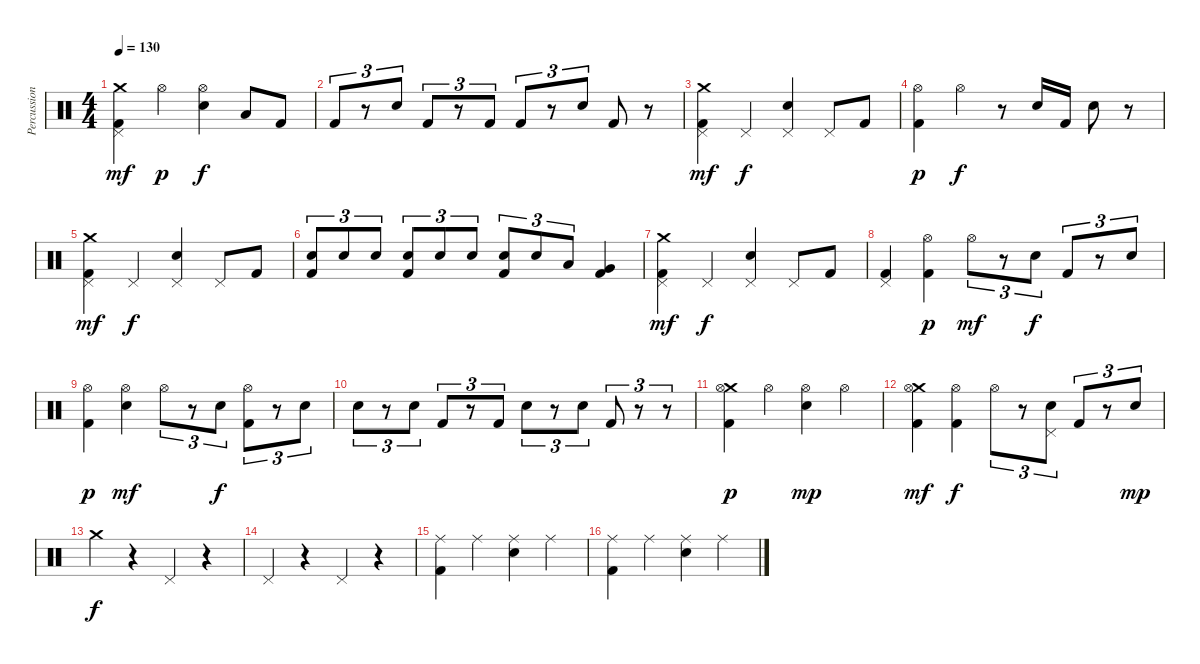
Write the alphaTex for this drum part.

\track ("Percussion" "Percussion") {instrument percussion}
\staff {score}
\articulation defaults
\ts (4 4)
\tempo 130
\clef neutral
\ks c
("Crash medium (hit)" "Pedal Hi-Hat (hit)" "Kick (hit) 2").4{dy mf} "Hi-Hat (open)".4{dy p} ("Hi-Hat (open)" "Snare (hit) 2").4{dy f} "Low Tom (hit)".8 "Kick (hit) 2".8 |
"Kick (hit) 2".8{tu (3 2)} r.8{tu (3 2)} "Snare (hit) 2".8{tu (3 2)} "Kick (hit) 2".8{tu (3 2)} r.8{tu (3 2)} "Kick (hit) 2".8{tu (3 2)} "Kick (hit) 2".8{tu (3 2)} r.8{tu (3 2)} "Snare (hit) 2".8{tu (3 2)} "Kick (hit) 2".8 r.8 |
("Crash medium (hit)" "Pedal Hi-Hat (hit)" "Kick (hit) 2").4{dy mf} "Pedal Hi-Hat (hit)".4{dy f} ("Pedal Hi-Hat (hit)" "Snare (hit) 2").4 "Pedal Hi-Hat (hit)".8 "Kick (hit) 2".8 |
("Hi-Hat (open)" "Kick (hit) 2").4{dy p} "Hi-Hat (open)".4{dy f} r.8 "Snare (hit) 2".16 "Kick (hit) 2".16 "Snare (hit) 2".8 r.8 |
("Crash medium (hit)" "Pedal Hi-Hat (hit)" "Kick (hit) 2").4{dy mf} "Pedal Hi-Hat (hit)".4{dy f} ("Pedal Hi-Hat (hit)" "Snare (hit) 2").4 "Pedal Hi-Hat (hit)".8 "Kick (hit) 2".8 |
("Snare (hit) 2" "Kick (hit) 2").8{tu (3 2)} "Snare (hit) 2".8{tu (3 2)} "Snare (hit) 2".8{tu (3 2)} ("Snare (hit) 2" "Kick (hit) 2").8{tu (3 2)} "Snare (hit) 2".8{tu (3 2)} "Snare (hit) 2".8{tu (3 2)} ("Snare (hit) 2" "Kick (hit) 2").8{tu (3 2)} "Snare (hit) 2".8{tu (3 2)} "Low Tom (hit)".8{tu (3 2)} ("Very Low Tom (hit)" "Kick (hit) 2").4 |
("Crash medium (hit)" "Pedal Hi-Hat (hit)" "Kick (hit) 2").4{dy mf} "Pedal Hi-Hat (hit)".4{dy f} ("Pedal Hi-Hat (hit)" "Snare (hit) 2").4 "Pedal Hi-Hat (hit)".8 "Kick (hit) 2".8 |
("Pedal Hi-Hat (hit)" "Kick (hit) 2").4 ("Hi-Hat (open)" "Kick (hit) 2").4{dy p} "Hi-Hat (open)".8{tu (3 2) dy mf} r.8{tu (3 2)} "Snare (hit) 2".8{tu (3 2) dy f} "Kick (hit) 2".8{tu (3 2)} r.8{tu (3 2)} "Snare (hit) 2".8{tu (3 2)} |
("Hi-Hat (open)" "Kick (hit) 2").4{dy p} ("Hi-Hat (open)" "Snare (hit) 2").4{dy mf} "Hi-Hat (open)".8{tu (3 2)} r.8{tu (3 2)} "Snare (hit) 2".8{tu (3 2) dy f} ("Hi-Hat (open)" "Kick (hit) 2").8{tu (3 2)} r.8{tu (3 2)} "Snare (hit) 2".8{tu (3 2)} |
"Snare (hit) 2".8{tu (3 2)} r.8{tu (3 2)} "Snare (hit) 2".8{tu (3 2)} "Kick (hit) 2".8{tu (3 2)} r.8{tu (3 2)} "Kick (hit) 2".8{tu (3 2)} "Snare (hit) 2".8{tu (3 2)} r.8{tu (3 2)} "Snare (hit) 2".8{tu (3 2)} "Kick (hit) 2".8{tu (3 2)} r.8{tu (3 2)} r.8{tu (3 2)} |
("Crash medium (hit)" "Hi-Hat (open)" "Kick (hit) 2").4{dy p} "Hi-Hat (open)".4 ("Hi-Hat (open)" "Snare (hit) 2").4{dy mp} "Hi-Hat (open)".4 |
("Crash medium (hit)" "Hi-Hat (open)" "Kick (hit) 2").4{dy mf} ("Hi-Hat (open)" "Kick (hit) 2").4{dy f} "Hi-Hat (open)".8{tu (3 2)} r.8{tu (3 2)} ("Pedal Hi-Hat (hit)" "Snare (hit) 2").8{tu (3 2)} "Kick (hit) 2".8{tu (3 2)} r.8{tu (3 2)} "Snare (hit) 2".8{tu (3 2) dy mp} |
"Crash medium (hit)".4{dy f} r.4 "Pedal Hi-Hat (hit)".4 r.4 |
"Pedal Hi-Hat (hit)".4 r.4 "Pedal Hi-Hat (hit)".4 r.4 |
("Ride (middle)" "Kick (hit) 2").4 "Ride (middle)".4 ("Ride (middle)" "Snare (hit) 2").4 "Ride (middle)".4 |
("Ride (middle)" "Kick (hit) 2").4 "Ride (middle)".4 ("Ride (middle)" "Snare (hit) 2").4 "Ride (middle)".4
